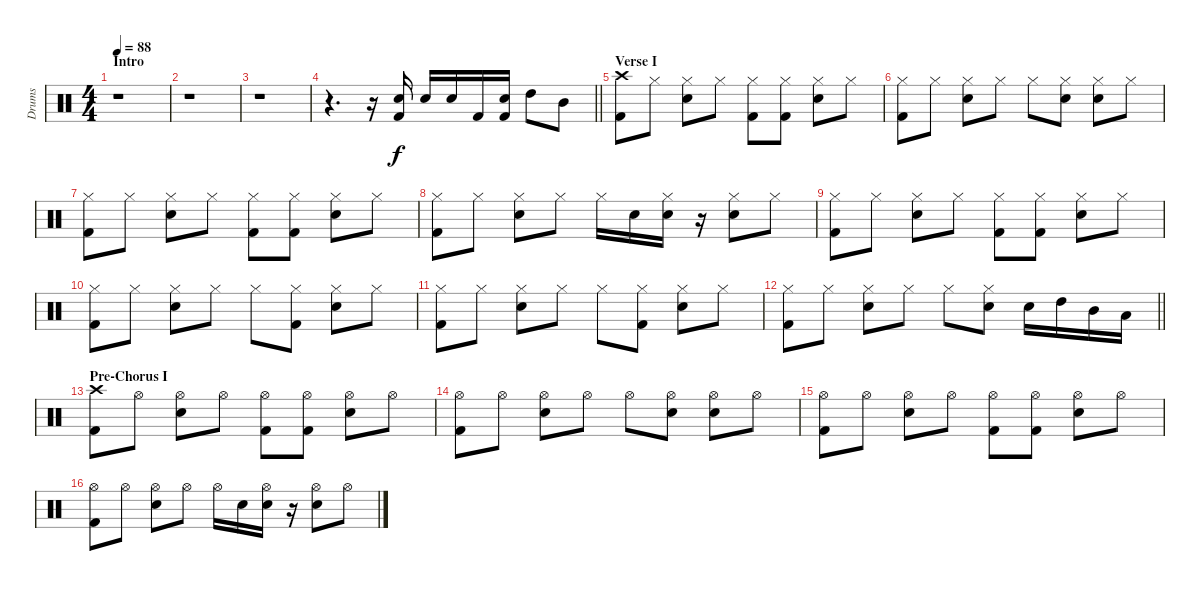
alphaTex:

\track ("Drums" "Drums") {instrument percussion}
\staff {score}
\articulation defaults
\ts (4 4)
\section ("" "Intro")
\tempo 88
\clef neutral
\ks c
r.1{dy f} |
r.1 |
r.1 |
\barLineRight lightlight
r.4{d} r.16 ("Electric Snare (hit)" "Kick (hit) 2").16 "Electric Snare (hit)".16 "Electric Snare (hit)".16 "Kick (hit) 2".16 ("Electric Snare (hit)" "Kick (hit) 2").16 "High Tom (hit)".8 "Mid Tom (hit)".8 |
\section ("" "Verse I")
("Crash high (hit)" "Kick (hit) 2").8 "Hi-Hat (closed)".8 ("Hi-Hat (closed)" "Electric Snare (hit)").8 "Hi-Hat (closed)".8 ("Hi-Hat (closed)" "Kick (hit) 2").8 ("Hi-Hat (closed)" "Kick (hit) 2").8 ("Hi-Hat (closed)" "Electric Snare (hit)").8 "Hi-Hat (closed)".8 |
("Hi-Hat (closed)" "Kick (hit) 2").8 "Hi-Hat (closed)".8 ("Hi-Hat (closed)" "Electric Snare (hit)").8 "Hi-Hat (closed)".8 "Hi-Hat (closed)".8 ("Hi-Hat (closed)" "Electric Snare (hit)").8 ("Hi-Hat (closed)" "Electric Snare (hit)").8 "Hi-Hat (closed)".8 |
("Hi-Hat (closed)" "Kick (hit) 2").8 "Hi-Hat (closed)".8 ("Hi-Hat (closed)" "Electric Snare (hit)").8 "Hi-Hat (closed)".8 ("Hi-Hat (closed)" "Kick (hit) 2").8 ("Hi-Hat (closed)" "Kick (hit) 2").8 ("Hi-Hat (closed)" "Electric Snare (hit)").8 "Hi-Hat (closed)".8 |
("Hi-Hat (closed)" "Kick (hit) 2").8 "Hi-Hat (closed)".8 ("Hi-Hat (closed)" "Electric Snare (hit)").8 "Hi-Hat (closed)".8 "Hi-Hat (closed)".16 "Electric Snare (hit)".16 ("Hi-Hat (closed)" "Electric Snare (hit)").16 r.16 ("Hi-Hat (closed)" "Electric Snare (hit)").8 "Hi-Hat (closed)".8 |
("Hi-Hat (closed)" "Kick (hit) 2").8 "Hi-Hat (closed)".8 ("Hi-Hat (closed)" "Electric Snare (hit)").8 "Hi-Hat (closed)".8 ("Hi-Hat (closed)" "Kick (hit) 2").8 ("Hi-Hat (closed)" "Kick (hit) 2").8 ("Hi-Hat (closed)" "Electric Snare (hit)").8 "Hi-Hat (closed)".8 |
("Hi-Hat (closed)" "Kick (hit) 2").8 "Hi-Hat (closed)".8 ("Hi-Hat (closed)" "Electric Snare (hit)").8 "Hi-Hat (closed)".8 "Hi-Hat (closed)".8 ("Hi-Hat (closed)" "Kick (hit) 2").8 ("Hi-Hat (closed)" "Electric Snare (hit)").8 "Hi-Hat (closed)".8 |
("Hi-Hat (closed)" "Kick (hit) 2").8 "Hi-Hat (closed)".8 ("Hi-Hat (closed)" "Electric Snare (hit)").8 "Hi-Hat (closed)".8 "Hi-Hat (closed)".8 ("Hi-Hat (closed)" "Kick (hit) 2").8 ("Hi-Hat (closed)" "Electric Snare (hit)").8 "Hi-Hat (closed)".8 |
\barLineRight lightlight
("Hi-Hat (closed)" "Kick (hit) 2").8 "Hi-Hat (closed)".8 ("Hi-Hat (closed)" "Electric Snare (hit)").8 "Hi-Hat (closed)".8 "Hi-Hat (closed)".8 ("Hi-Hat (closed)" "Electric Snare (hit)").8 "Electric Snare (hit)".16 "High Tom (hit)".16 "Mid Tom (hit)".16 "Low Tom (hit)".16 |
\section ("" "Pre-Chorus I")
("Crash high (hit)" "Kick (hit) 2").8 "Hi-Hat (open)".8 ("Hi-Hat (open)" "Electric Snare (hit)").8 "Hi-Hat (open)".8 ("Hi-Hat (open)" "Kick (hit) 2").8 ("Hi-Hat (open)" "Kick (hit) 2").8 ("Hi-Hat (open)" "Electric Snare (hit)").8 "Hi-Hat (open)".8 |
("Hi-Hat (open)" "Kick (hit) 2").8 "Hi-Hat (open)".8 ("Hi-Hat (open)" "Electric Snare (hit)").8 "Hi-Hat (open)".8 "Hi-Hat (open)".8 ("Hi-Hat (open)" "Electric Snare (hit)").8 ("Hi-Hat (open)" "Electric Snare (hit)").8 "Hi-Hat (open)".8 |
("Hi-Hat (open)" "Kick (hit) 2").8 "Hi-Hat (open)".8 ("Hi-Hat (open)" "Electric Snare (hit)").8 "Hi-Hat (open)".8 ("Hi-Hat (open)" "Kick (hit) 2").8 ("Hi-Hat (open)" "Kick (hit) 2").8 ("Hi-Hat (open)" "Electric Snare (hit)").8 "Hi-Hat (open)".8 |
("Hi-Hat (open)" "Kick (hit) 2").8 "Hi-Hat (open)".8 ("Hi-Hat (open)" "Electric Snare (hit)").8 "Hi-Hat (open)".8 "Hi-Hat (open)".16 "Electric Snare (hit)".16 ("Hi-Hat (open)" "Electric Snare (hit)").16 r.16 ("Hi-Hat (open)" "Electric Snare (hit)").8 "Hi-Hat (open)".8
